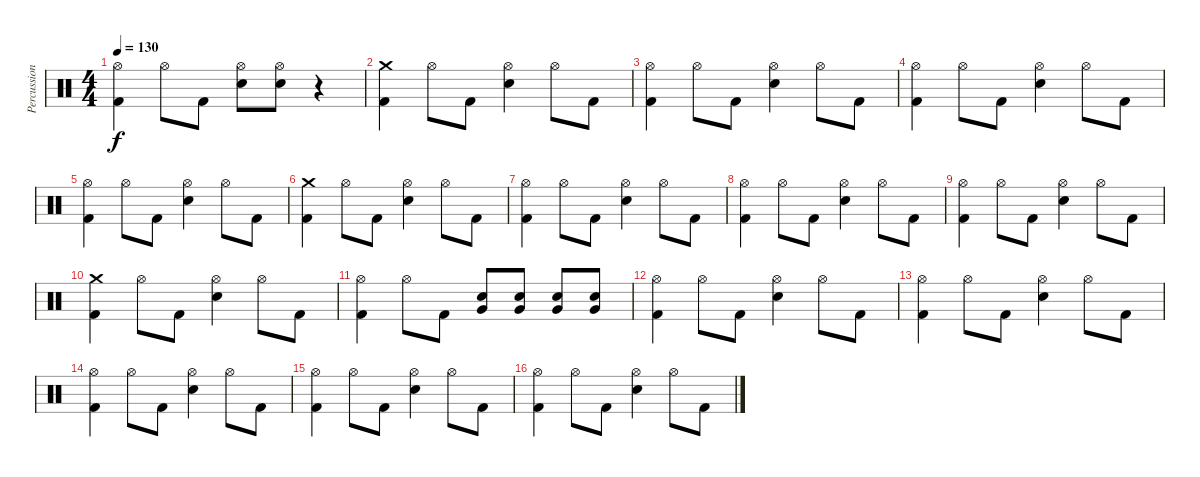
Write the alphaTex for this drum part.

\track ("Percussion" "Percussion") {instrument percussion}
\staff {score}
\articulation defaults
\ts (4 4)
\tempo 130
\clef neutral
\ks c
("Hi-Hat (open)" "Kick (hit) 2").4{dy f} "Hi-Hat (open)".8 "Kick (hit) 2".8 ("Hi-Hat (open)" "Electric Snare (hit)").8 ("Hi-Hat (open)" "Electric Snare (hit)").8 r.4 |
("Crash medium (hit)" "Kick (hit) 2").4 "Hi-Hat (open)".8 "Kick (hit) 2".8 ("Hi-Hat (open)" "Electric Snare (hit)").4 "Hi-Hat (open)".8 "Kick (hit) 2".8 |
("Hi-Hat (open)" "Kick (hit) 2").4 "Hi-Hat (open)".8 "Kick (hit) 2".8 ("Hi-Hat (open)" "Electric Snare (hit)").4 "Hi-Hat (open)".8 "Kick (hit) 2".8 |
("Hi-Hat (open)" "Kick (hit) 2").4 "Hi-Hat (open)".8 "Kick (hit) 2".8 ("Hi-Hat (open)" "Electric Snare (hit)").4 "Hi-Hat (open)".8 "Kick (hit) 2".8 |
("Hi-Hat (open)" "Kick (hit) 2").4 "Hi-Hat (open)".8 "Kick (hit) 2".8 ("Hi-Hat (open)" "Electric Snare (hit)").4 "Hi-Hat (open)".8 "Kick (hit) 2".8 |
("Crash medium (hit)" "Kick (hit) 2").4 "Hi-Hat (open)".8 "Kick (hit) 2".8 ("Hi-Hat (open)" "Electric Snare (hit)").4 "Hi-Hat (open)".8 "Kick (hit) 2".8 |
("Hi-Hat (open)" "Kick (hit) 2").4 "Hi-Hat (open)".8 "Kick (hit) 2".8 ("Hi-Hat (open)" "Electric Snare (hit)").4 "Hi-Hat (open)".8 "Kick (hit) 2".8 |
("Hi-Hat (open)" "Kick (hit) 2").4 "Hi-Hat (open)".8 "Kick (hit) 2".8 ("Hi-Hat (open)" "Electric Snare (hit)").4 "Hi-Hat (open)".8 "Kick (hit) 2".8 |
("Hi-Hat (open)" "Kick (hit) 2").4 "Hi-Hat (open)".8 "Kick (hit) 2".8 ("Hi-Hat (open)" "Electric Snare (hit)").4 "Hi-Hat (open)".8 "Kick (hit) 2".8 |
("Crash medium (hit)" "Kick (hit) 2").4 "Hi-Hat (open)".8 "Kick (hit) 2".8 ("Hi-Hat (open)" "Electric Snare (hit)").4 "Hi-Hat (open)".8 "Kick (hit) 2".8 |
("Hi-Hat (open)" "Kick (hit) 2").4 "Hi-Hat (open)".8 "Kick (hit) 2".8 ("Very Low Tom (hit)" "Electric Snare (hit)").8 ("Very Low Tom (hit)" "Electric Snare (hit)").8 ("Very Low Tom (hit)" "Electric Snare (hit)").8 ("Very Low Tom (hit)" "Electric Snare (hit)").8 |
("Hi-Hat (open)" "Kick (hit) 2").4 "Hi-Hat (open)".8 "Kick (hit) 2".8 ("Hi-Hat (open)" "Electric Snare (hit)").4 "Hi-Hat (open)".8 "Kick (hit) 2".8 |
("Hi-Hat (open)" "Kick (hit) 2").4 "Hi-Hat (open)".8 "Kick (hit) 2".8 ("Hi-Hat (open)" "Electric Snare (hit)").4 "Hi-Hat (open)".8 "Kick (hit) 2".8 |
("Hi-Hat (open)" "Kick (hit) 2").4 "Hi-Hat (open)".8 "Kick (hit) 2".8 ("Hi-Hat (open)" "Electric Snare (hit)").4 "Hi-Hat (open)".8 "Kick (hit) 2".8 |
("Hi-Hat (open)" "Kick (hit) 2").4 "Hi-Hat (open)".8 "Kick (hit) 2".8 ("Hi-Hat (open)" "Electric Snare (hit)").4 "Hi-Hat (open)".8 "Kick (hit) 2".8 |
("Hi-Hat (open)" "Kick (hit) 2").4 "Hi-Hat (open)".8 "Kick (hit) 2".8 ("Hi-Hat (open)" "Electric Snare (hit)").4 "Hi-Hat (open)".8 "Kick (hit) 2".8
